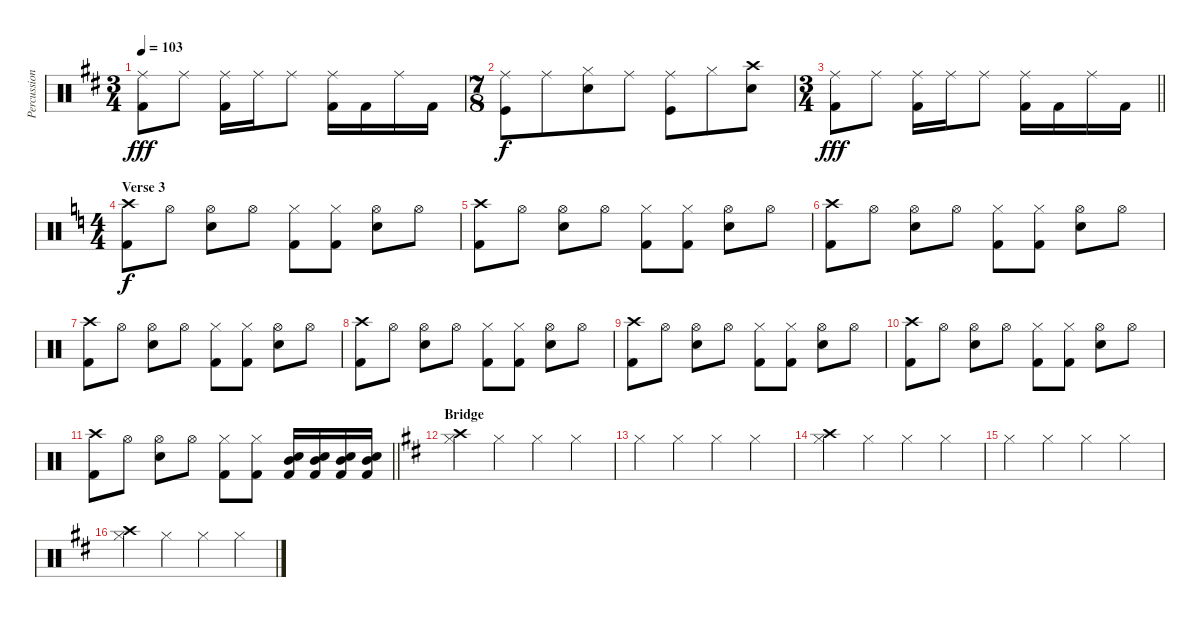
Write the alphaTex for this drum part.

\track ("Percussion" "Percussion") {instrument percussion}
\staff {score}
\articulation defaults
\ts (3 4)
\tempo 103
\clef neutral
\ks d
("Ride (middle)" "Kick (hit) 2").8{dy fff} "Ride (middle)".8 ("Ride (middle)" "Kick (hit) 2").16 "Ride (middle)".16 "Ride (middle)".8 ("Ride (middle)" "Kick (hit) 2").16 "Kick (hit) 2".16 "Ride (middle)".16 "Kick (hit) 2".16 |
\ts (7 8)
("Ride (middle)" "Kick (hit)").8{dy f} "Ride (middle)".8 ("Hi-Hat (closed)" "Snare (hit) 2").8 "Ride (middle)".8 ("Ride (middle)" "Kick (hit)").8 "Hi-Hat (closed)".8 ("Crash high (hit)" "Snare (hit) 2").8 |
\ts (3 4)
\barLineRight lightlight
("Ride (middle)" "Kick (hit) 2").8{dy fff} "Ride (middle)".8 ("Ride (middle)" "Kick (hit) 2").16 "Ride (middle)".16 "Ride (middle)".8 ("Ride (middle)" "Kick (hit) 2").16 "Kick (hit) 2".16 "Ride (middle)".16 "Kick (hit) 2".16 |
\ts (4 4)
\section ("" "Verse 3")
\ks c
("Crash high (hit)" "Kick (hit) 2").8{dy f} "Hi-Hat (open)".8 ("Hi-Hat (open)" "Snare (hit) 2").8 "Hi-Hat (open)".8 ("Hi-Hat (closed)" "Kick (hit) 2").8 ("Hi-Hat (closed)" "Kick (hit) 2").8 ("Hi-Hat (open)" "Snare (hit) 2").8 "Hi-Hat (open)".8 |
("Crash high (hit)" "Kick (hit) 2").8 "Hi-Hat (open)".8 ("Hi-Hat (open)" "Snare (hit) 2").8 "Hi-Hat (open)".8 ("Hi-Hat (closed)" "Kick (hit) 2").8 ("Hi-Hat (closed)" "Kick (hit) 2").8 ("Hi-Hat (open)" "Snare (hit) 2").8 "Hi-Hat (open)".8 |
("Crash high (hit)" "Kick (hit) 2").8 "Hi-Hat (open)".8 ("Hi-Hat (open)" "Snare (hit) 2").8 "Hi-Hat (open)".8 ("Hi-Hat (closed)" "Kick (hit) 2").8 ("Hi-Hat (closed)" "Kick (hit) 2").8 ("Hi-Hat (open)" "Snare (hit) 2").8 "Hi-Hat (open)".8 |
("Crash high (hit)" "Kick (hit) 2").8 "Hi-Hat (open)".8 ("Hi-Hat (open)" "Snare (hit) 2").8 "Hi-Hat (open)".8 ("Hi-Hat (closed)" "Kick (hit) 2").8 ("Hi-Hat (closed)" "Kick (hit) 2").8 ("Hi-Hat (open)" "Snare (hit) 2").8 "Hi-Hat (open)".8 |
("Crash high (hit)" "Kick (hit) 2").8 "Hi-Hat (open)".8 ("Hi-Hat (open)" "Snare (hit) 2").8 "Hi-Hat (open)".8 ("Hi-Hat (closed)" "Kick (hit) 2").8 ("Hi-Hat (closed)" "Kick (hit) 2").8 ("Hi-Hat (open)" "Snare (hit) 2").8 "Hi-Hat (open)".8 |
("Crash high (hit)" "Kick (hit) 2").8 "Hi-Hat (open)".8 ("Hi-Hat (open)" "Snare (hit) 2").8 "Hi-Hat (open)".8 ("Hi-Hat (closed)" "Kick (hit) 2").8 ("Hi-Hat (closed)" "Kick (hit) 2").8 ("Hi-Hat (open)" "Snare (hit) 2").8 "Hi-Hat (open)".8 |
("Crash high (hit)" "Kick (hit) 2").8 "Hi-Hat (open)".8 ("Hi-Hat (open)" "Snare (hit) 2").8 "Hi-Hat (open)".8 ("Hi-Hat (closed)" "Kick (hit) 2").8 ("Hi-Hat (closed)" "Kick (hit) 2").8 ("Hi-Hat (open)" "Snare (hit) 2").8 "Hi-Hat (open)".8 |
\barLineRight lightlight
("Crash high (hit)" "Kick (hit) 2").8 "Hi-Hat (open)".8 ("Hi-Hat (open)" "Snare (hit) 2").8 "Hi-Hat (open)".8 ("Hi-Hat (closed)" "Kick (hit) 2").8 ("Hi-Hat (closed)" "Kick (hit) 2").8 ("Kick (hit) 2" "Snare (hit) 2" "Mid Tom (hit)").16 ("Kick (hit) 2" "Snare (hit) 2" "Mid Tom (hit)").16 ("Kick (hit) 2" "Snare (hit) 2" "Mid Tom (hit)").16 ("Kick (hit) 2" "Snare (hit) 2" "Mid Tom (hit)").16 |
\section ("" "Bridge")
\ks d
("Hi-Hat (closed)" "Crash high (hit)").4 "Hi-Hat (closed)".4 "Hi-Hat (closed)".4 "Hi-Hat (closed)".4 |
"Hi-Hat (closed)".4 "Hi-Hat (closed)".4 "Hi-Hat (closed)".4 "Hi-Hat (closed)".4 |
("Hi-Hat (closed)" "Crash high (hit)").4 "Hi-Hat (closed)".4 "Hi-Hat (closed)".4 "Hi-Hat (closed)".4 |
"Hi-Hat (closed)".4 "Hi-Hat (closed)".4 "Hi-Hat (closed)".4 "Hi-Hat (closed)".4 |
("Hi-Hat (closed)" "Crash high (hit)").4 "Hi-Hat (closed)".4 "Hi-Hat (closed)".4 "Hi-Hat (closed)".4
